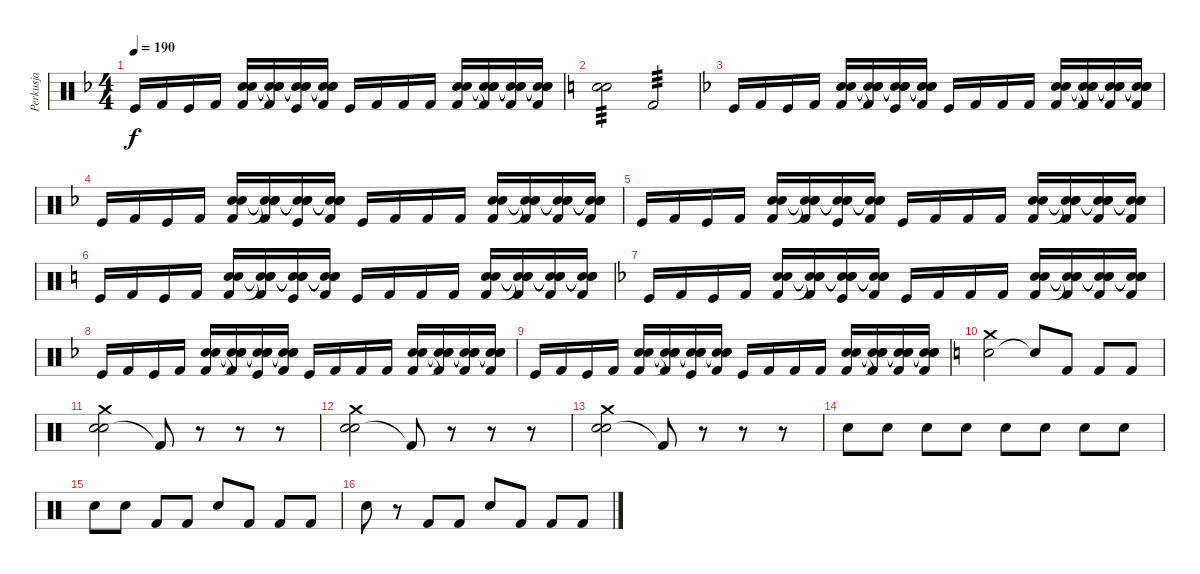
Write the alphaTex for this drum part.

\track ("Perkusja" "Perkusja") {instrument percussion}
\staff {score}
\articulation defaults
\ts (4 4)
\tempo 190
\clef neutral
\ks dminor "Kick (hit)".16{dy f} "Kick (hit) 2".16 "Kick (hit)".16 "Kick (hit) 2".16
("Electric Snare (hit)" "Snare (hit) 2" "Kick (hit) 2").16 ("Snare (hit)"{t} "Snare (hit)"{t} "Snare (hit)"{t} "Kick (hit) 2").16 ("Snare (hit)"{t} "Snare (hit)"{t} "Snare (hit)"{t} "Kick (hit)").16 ("Snare (hit)"{t} "Snare (hit)"{t} "Snare (hit)"{t} "Kick (hit) 2").16 "Kick (hit)".16 "Kick (hit) 2".16 "Kick (hit) 2".16 "Kick (hit) 2".16 ("Electric Snare (hit)" "Snare (hit) 2" "Kick (hit) 2").16 ("Snare (hit)"{t} "Snare (hit)"{t} "Snare (hit)"{t} "Kick (hit) 2").16 ("Snare (hit)"{t} "Snare (hit)"{t} "Snare (hit)"{t} "Kick (hit) 2").16 ("Snare (hit)"{t} "Snare (hit)"{t} "Snare (hit)"{t} "Kick (hit) 2").16 |
\ks c
("Electric Snare (hit)" "Snare (hit) 2").2{tp 3 volume 9} "Kick (hit) 2".2{tp 3} |
\ks dminor "Kick (hit)".16{volume 11} "Kick (hit) 2".16 "Kick (hit)".16 "Kick (hit) 2".16
("Electric Snare (hit)" "Snare (hit) 2" "Kick (hit) 2").16 ("Snare (hit)"{t} "Snare (hit)"{t} "Snare (hit)"{t} "Kick (hit) 2").16 ("Snare (hit)"{t} "Snare (hit)"{t} "Snare (hit)"{t} "Kick (hit)").16 ("Snare (hit)"{t} "Snare (hit)"{t} "Snare (hit)"{t} "Kick (hit) 2").16 "Kick (hit)".16 "Kick (hit) 2".16 "Kick (hit) 2".16 "Kick (hit) 2".16 ("Electric Snare (hit)" "Snare (hit) 2" "Kick (hit) 2").16 ("Snare (hit)"{t} "Snare (hit)"{t} "Snare (hit)"{t} "Kick (hit) 2").16 ("Snare (hit)"{t} "Snare (hit)"{t} "Snare (hit)"{t} "Kick (hit) 2").16 ("Snare (hit)"{t} "Snare (hit)"{t} "Snare (hit)"{t} "Kick (hit) 2").16 |
"Kick (hit)".16 "Kick (hit) 2".16 "Kick (hit)".16 "Kick (hit) 2".16 ("Electric Snare (hit)" "Snare (hit) 2" "Kick (hit) 2").16 ("Snare (hit)"{t} "Snare (hit)"{t} "Snare (hit)"{t} "Kick (hit) 2").16 ("Snare (hit)"{t} "Snare (hit)"{t} "Snare (hit)"{t} "Kick (hit)").16 ("Snare (hit)"{t} "Snare (hit)"{t} "Snare (hit)"{t} "Kick (hit) 2").16 "Kick (hit)".16 "Kick (hit) 2".16 "Kick (hit) 2".16 "Kick (hit) 2".16 ("Electric Snare (hit)" "Snare (hit) 2" "Kick (hit) 2").16 ("Snare (hit)"{t} "Snare (hit)"{t} "Snare (hit)"{t} "Kick (hit) 2").16 ("Snare (hit)"{t} "Snare (hit)"{t} "Snare (hit)"{t} "Kick (hit) 2").16 ("Snare (hit)"{t} "Snare (hit)"{t} "Snare (hit)"{t} "Kick (hit) 2").16 |
"Kick (hit)".16 "Kick (hit) 2".16 "Kick (hit)".16 "Kick (hit) 2".16 ("Electric Snare (hit)" "Snare (hit) 2" "Kick (hit) 2").16 ("Snare (hit)"{t} "Snare (hit)"{t} "Snare (hit)"{t} "Kick (hit) 2").16 ("Snare (hit)"{t} "Snare (hit)"{t} "Snare (hit)"{t} "Kick (hit)").16 ("Snare (hit)"{t} "Snare (hit)"{t} "Snare (hit)"{t} "Kick (hit) 2").16 "Kick (hit)".16 "Kick (hit) 2".16 "Kick (hit) 2".16 "Kick (hit) 2".16 ("Electric Snare (hit)" "Snare (hit) 2" "Kick (hit) 2").16 ("Snare (hit)"{t} "Snare (hit)"{t} "Snare (hit)"{t} "Kick (hit) 2").16 ("Snare (hit)"{t} "Snare (hit)"{t} "Snare (hit)"{t} "Kick (hit) 2").16 ("Snare (hit)"{t} "Snare (hit)"{t} "Snare (hit)"{t} "Kick (hit) 2").16 |
\ks c "Kick (hit)".16 "Kick (hit) 2".16 "Kick (hit)".16 "Kick (hit) 2".16
("Electric Snare (hit)" "Snare (hit) 2" "Kick (hit) 2").16 ("Snare (hit)"{t} "Snare (hit)"{t} "Snare (hit)"{t} "Kick (hit) 2").16 ("Snare (hit)"{t} "Snare (hit)"{t} "Snare (hit)"{t} "Kick (hit)").16 ("Snare (hit)"{t} "Snare (hit)"{t} "Snare (hit)"{t} "Kick (hit) 2").16 "Kick (hit)".16 "Kick (hit) 2".16 "Kick (hit) 2".16 "Kick (hit) 2".16 ("Electric Snare (hit)" "Snare (hit) 2" "Kick (hit) 2").16 ("Snare (hit)"{t} "Snare (hit)"{t} "Snare (hit)"{t} "Kick (hit) 2").16 ("Snare (hit)"{t} "Snare (hit)"{t} "Snare (hit)"{t} "Kick (hit) 2").16 ("Snare (hit)"{t} "Snare (hit)"{t} "Snare (hit)"{t} "Kick (hit) 2").16 |
\ks dminor "Kick (hit)".16 "Kick (hit) 2".16 "Kick (hit)".16 "Kick (hit) 2".16
("Electric Snare (hit)" "Snare (hit) 2" "Kick (hit) 2").16 ("Snare (hit)"{t} "Snare (hit)"{t} "Snare (hit)"{t} "Kick (hit) 2").16 ("Snare (hit)"{t} "Snare (hit)"{t} "Snare (hit)"{t} "Kick (hit)").16 ("Snare (hit)"{t} "Snare (hit)"{t} "Snare (hit)"{t} "Kick (hit) 2").16 "Kick (hit)".16 "Kick (hit) 2".16 "Kick (hit) 2".16 "Kick (hit) 2".16 ("Electric Snare (hit)" "Snare (hit) 2" "Kick (hit) 2").16 ("Snare (hit)"{t} "Snare (hit)"{t} "Snare (hit)"{t} "Kick (hit) 2").16 ("Snare (hit)"{t} "Snare (hit)"{t} "Snare (hit)"{t} "Kick (hit) 2").16 ("Snare (hit)"{t} "Snare (hit)"{t} "Snare (hit)"{t} "Kick (hit) 2").16 |
"Kick (hit)".16 "Kick (hit) 2".16 "Kick (hit)".16 "Kick (hit) 2".16 ("Electric Snare (hit)" "Snare (hit) 2" "Kick (hit) 2").16 ("Snare (hit)"{t} "Snare (hit)"{t} "Snare (hit)"{t} "Kick (hit) 2").16 ("Snare (hit)"{t} "Snare (hit)"{t} "Snare (hit)"{t} "Kick (hit)").16 ("Snare (hit)"{t} "Snare (hit)"{t} "Snare (hit)"{t} "Kick (hit) 2").16 "Kick (hit)".16 "Kick (hit) 2".16 "Kick (hit) 2".16 "Kick (hit) 2".16 ("Electric Snare (hit)" "Snare (hit) 2" "Kick (hit) 2").16 ("Snare (hit)"{t} "Snare (hit)"{t} "Snare (hit)"{t} "Kick (hit) 2").16 ("Snare (hit)"{t} "Snare (hit)"{t} "Snare (hit)"{t} "Kick (hit) 2").16 ("Snare (hit)"{t} "Snare (hit)"{t} "Snare (hit)"{t} "Kick (hit) 2").16 |
"Kick (hit)".16 "Kick (hit) 2".16 "Kick (hit)".16 "Kick (hit) 2".16 ("Electric Snare (hit)" "Snare (hit) 2" "Kick (hit) 2").16 ("Snare (hit)"{t} "Snare (hit)"{t} "Snare (hit)"{t} "Kick (hit) 2").16 ("Snare (hit)"{t} "Snare (hit)"{t} "Snare (hit)"{t} "Kick (hit)").16 ("Snare (hit)"{t} "Snare (hit)"{t} "Snare (hit)"{t} "Kick (hit) 2").16 "Kick (hit)".16 "Kick (hit) 2".16 "Kick (hit) 2".16 "Kick (hit) 2".16 ("Electric Snare (hit)" "Snare (hit) 2" "Kick (hit) 2").16 ("Snare (hit)"{t} "Snare (hit)"{t} "Snare (hit)"{t} "Kick (hit) 2").16 ("Snare (hit)"{t} "Snare (hit)"{t} "Snare (hit)"{t} "Kick (hit) 2").16 ("Snare (hit)"{t} "Snare (hit)"{t} "Snare (hit)"{t} "Kick (hit) 2").16 |
\ks c
("Electric Snare (hit)" "Crash medium (hit)").2 "Snare (hit)"{t}.8 "Kick (hit) 2".8 "Kick (hit) 2".8 "Kick (hit) 2".8 |
("Snare (hit) 2" "Electric Snare (hit)" "Crash medium (hit)").2 "Kick (hit) 2"{t}.8 r.8 r.8 r.8 |
("Snare (hit) 2" "Electric Snare (hit)" "Crash medium (hit)").2 "Kick (hit) 2"{t}.8 r.8 r.8 r.8 |
("Snare (hit) 2" "Electric Snare (hit)" "Crash medium (hit)").2 "Kick (hit) 2"{t}.8 r.8 r.8 r.8 |
"Electric Snare (hit)".8{balance 16} "Electric Snare (hit)".8{balance 14} "Electric Snare (hit)".8{balance 12} "Electric Snare (hit)".8{balance 10} "Electric Snare (hit)".8{balance 6} "Electric Snare (hit)".8{balance 4} "Electric Snare (hit)".8{balance 2} "Electric Snare (hit)".8{balance 0} |
"Electric Snare (hit)".8{balance 8} "Electric Snare (hit)".8 "Kick (hit) 2".8 "Kick (hit) 2".8 "Electric Snare (hit)".8 "Kick (hit) 2".8 "Kick (hit) 2".8 "Kick (hit) 2".8 |
"Electric Snare (hit)".8 r.8 "Kick (hit) 2".8 "Kick (hit) 2".8 "Electric Snare (hit)".8 "Kick (hit) 2".8 "Kick (hit) 2".8 "Kick (hit) 2".8
